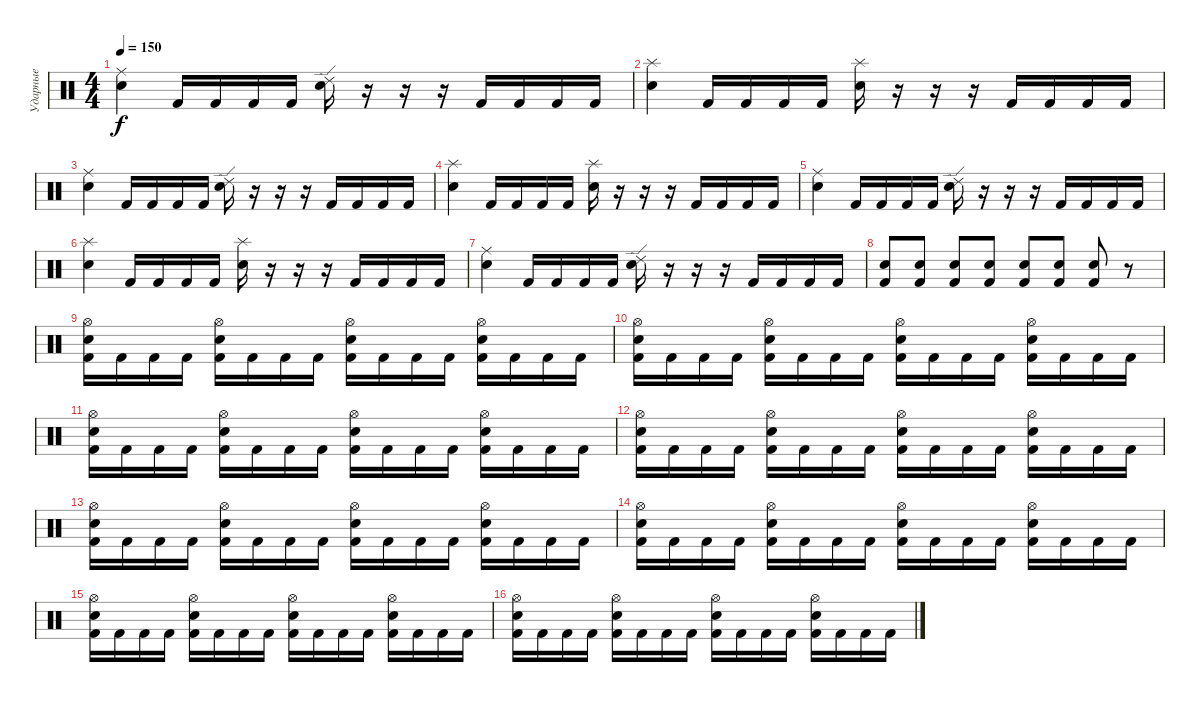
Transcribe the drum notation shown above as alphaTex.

\track ("Ударные" "Ударные") {instrument percussion}
\staff {score}
\articulation defaults
\ts (4 4)
\tempo 150
\clef neutral
\ks c
("Electric Snare (hit)" "Ride (middle)").4{dy f} "Kick (hit) 2".16 "Kick (hit) 2".16 "Kick (hit) 2".16 "Kick (hit) 2".16 ("Electric Snare (hit)" "Ride (edge) 2").16 r.16 r.16 r.16 "Kick (hit) 2".16 "Kick (hit) 2".16 "Kick (hit) 2".16 "Kick (hit) 2".16 |
("Electric Snare (hit)" "Splash (hit)").4 "Kick (hit) 2".16 "Kick (hit) 2".16 "Kick (hit) 2".16 "Kick (hit) 2".16 ("Electric Snare (hit)" "Splash (hit)").16 r.16 r.16 r.16 "Kick (hit) 2".16 "Kick (hit) 2".16 "Kick (hit) 2".16 "Kick (hit) 2".16 |
("Electric Snare (hit)" "Ride (middle)").4 "Kick (hit) 2".16 "Kick (hit) 2".16 "Kick (hit) 2".16 "Kick (hit) 2".16 ("Electric Snare (hit)" "Ride (edge) 2").16 r.16 r.16 r.16 "Kick (hit) 2".16 "Kick (hit) 2".16 "Kick (hit) 2".16 "Kick (hit) 2".16 |
("Electric Snare (hit)" "Splash (hit)").4 "Kick (hit) 2".16 "Kick (hit) 2".16 "Kick (hit) 2".16 "Kick (hit) 2".16 ("Electric Snare (hit)" "Splash (hit)").16 r.16 r.16 r.16 "Kick (hit) 2".16 "Kick (hit) 2".16 "Kick (hit) 2".16 "Kick (hit) 2".16 |
("Electric Snare (hit)" "Ride (middle)").4 "Kick (hit) 2".16 "Kick (hit) 2".16 "Kick (hit) 2".16 "Kick (hit) 2".16 ("Electric Snare (hit)" "Ride (edge) 2").16 r.16 r.16 r.16 "Kick (hit) 2".16 "Kick (hit) 2".16 "Kick (hit) 2".16 "Kick (hit) 2".16 |
("Electric Snare (hit)" "Splash (hit)").4 "Kick (hit) 2".16 "Kick (hit) 2".16 "Kick (hit) 2".16 "Kick (hit) 2".16 ("Electric Snare (hit)" "Splash (hit)").16 r.16 r.16 r.16 "Kick (hit) 2".16 "Kick (hit) 2".16 "Kick (hit) 2".16 "Kick (hit) 2".16 |
("Electric Snare (hit)" "Ride (middle)").4 "Kick (hit) 2".16 "Kick (hit) 2".16 "Kick (hit) 2".16 "Kick (hit) 2".16 ("Electric Snare (hit)" "Ride (edge) 2").16 r.16 r.16 r.16 "Kick (hit) 2".16 "Kick (hit) 2".16 "Kick (hit) 2".16 "Kick (hit) 2".16 |
("Electric Snare (hit)" "Kick (hit) 2").8 ("Electric Snare (hit)" "Kick (hit) 2").8 ("Electric Snare (hit)" "Kick (hit) 2").8 ("Electric Snare (hit)" "Kick (hit) 2").8 ("Electric Snare (hit)" "Kick (hit) 2").8 ("Electric Snare (hit)" "Kick (hit) 2").8 ("Electric Snare (hit)" "Kick (hit) 2").8 r.8 |
("Kick (hit) 2" "Electric Snare (hit)" "Hi-Hat (open)").16 "Kick (hit) 2".16 "Kick (hit) 2".16 "Kick (hit) 2".16 ("Kick (hit) 2" "Electric Snare (hit)" "Hi-Hat (open)").16 "Kick (hit) 2".16 "Kick (hit) 2".16 "Kick (hit) 2".16 ("Kick (hit) 2" "Electric Snare (hit)" "Hi-Hat (open)").16 "Kick (hit) 2".16 "Kick (hit) 2".16 "Kick (hit) 2".16 ("Kick (hit) 2" "Electric Snare (hit)" "Hi-Hat (open)").16 "Kick (hit) 2".16 "Kick (hit) 2".16 "Kick (hit) 2".16 |
("Kick (hit) 2" "Electric Snare (hit)" "Hi-Hat (open)").16 "Kick (hit) 2".16 "Kick (hit) 2".16 "Kick (hit) 2".16 ("Kick (hit) 2" "Electric Snare (hit)" "Hi-Hat (open)").16 "Kick (hit) 2".16 "Kick (hit) 2".16 "Kick (hit) 2".16 ("Kick (hit) 2" "Electric Snare (hit)" "Hi-Hat (open)").16 "Kick (hit) 2".16 "Kick (hit) 2".16 "Kick (hit) 2".16 ("Kick (hit) 2" "Electric Snare (hit)" "Hi-Hat (open)").16 "Kick (hit) 2".16 "Kick (hit) 2".16 "Kick (hit) 2".16 |
("Kick (hit) 2" "Electric Snare (hit)" "Hi-Hat (open)").16 "Kick (hit) 2".16 "Kick (hit) 2".16 "Kick (hit) 2".16 ("Kick (hit) 2" "Electric Snare (hit)" "Hi-Hat (open)").16 "Kick (hit) 2".16 "Kick (hit) 2".16 "Kick (hit) 2".16 ("Kick (hit) 2" "Electric Snare (hit)" "Hi-Hat (open)").16 "Kick (hit) 2".16 "Kick (hit) 2".16 "Kick (hit) 2".16 ("Kick (hit) 2" "Electric Snare (hit)" "Hi-Hat (open)").16 "Kick (hit) 2".16 "Kick (hit) 2".16 "Kick (hit) 2".16 |
("Kick (hit) 2" "Electric Snare (hit)" "Hi-Hat (open)").16 "Kick (hit) 2".16 "Kick (hit) 2".16 "Kick (hit) 2".16 ("Kick (hit) 2" "Electric Snare (hit)" "Hi-Hat (open)").16 "Kick (hit) 2".16 "Kick (hit) 2".16 "Kick (hit) 2".16 ("Kick (hit) 2" "Electric Snare (hit)" "Hi-Hat (open)").16 "Kick (hit) 2".16 "Kick (hit) 2".16 "Kick (hit) 2".16 ("Kick (hit) 2" "Electric Snare (hit)" "Hi-Hat (open)").16 "Kick (hit) 2".16 "Kick (hit) 2".16 "Kick (hit) 2".16 |
("Kick (hit) 2" "Electric Snare (hit)" "Hi-Hat (open)").16 "Kick (hit) 2".16 "Kick (hit) 2".16 "Kick (hit) 2".16 ("Kick (hit) 2" "Electric Snare (hit)" "Hi-Hat (open)").16 "Kick (hit) 2".16 "Kick (hit) 2".16 "Kick (hit) 2".16 ("Kick (hit) 2" "Electric Snare (hit)" "Hi-Hat (open)").16 "Kick (hit) 2".16 "Kick (hit) 2".16 "Kick (hit) 2".16 ("Kick (hit) 2" "Electric Snare (hit)" "Hi-Hat (open)").16 "Kick (hit) 2".16 "Kick (hit) 2".16 "Kick (hit) 2".16 |
("Kick (hit) 2" "Electric Snare (hit)" "Hi-Hat (open)").16 "Kick (hit) 2".16 "Kick (hit) 2".16 "Kick (hit) 2".16 ("Kick (hit) 2" "Electric Snare (hit)" "Hi-Hat (open)").16 "Kick (hit) 2".16 "Kick (hit) 2".16 "Kick (hit) 2".16 ("Kick (hit) 2" "Electric Snare (hit)" "Hi-Hat (open)").16 "Kick (hit) 2".16 "Kick (hit) 2".16 "Kick (hit) 2".16 ("Kick (hit) 2" "Electric Snare (hit)" "Hi-Hat (open)").16 "Kick (hit) 2".16 "Kick (hit) 2".16 "Kick (hit) 2".16 |
("Kick (hit) 2" "Electric Snare (hit)" "Hi-Hat (open)").16 "Kick (hit) 2".16 "Kick (hit) 2".16 "Kick (hit) 2".16 ("Kick (hit) 2" "Electric Snare (hit)" "Hi-Hat (open)").16 "Kick (hit) 2".16 "Kick (hit) 2".16 "Kick (hit) 2".16 ("Kick (hit) 2" "Electric Snare (hit)" "Hi-Hat (open)").16 "Kick (hit) 2".16 "Kick (hit) 2".16 "Kick (hit) 2".16 ("Kick (hit) 2" "Electric Snare (hit)" "Hi-Hat (open)").16 "Kick (hit) 2".16 "Kick (hit) 2".16 "Kick (hit) 2".16 |
("Kick (hit) 2" "Electric Snare (hit)" "Hi-Hat (open)").16 "Kick (hit) 2".16 "Kick (hit) 2".16 "Kick (hit) 2".16 ("Kick (hit) 2" "Electric Snare (hit)" "Hi-Hat (open)").16 "Kick (hit) 2".16 "Kick (hit) 2".16 "Kick (hit) 2".16 ("Kick (hit) 2" "Electric Snare (hit)" "Hi-Hat (open)").16 "Kick (hit) 2".16 "Kick (hit) 2".16 "Kick (hit) 2".16 ("Kick (hit) 2" "Electric Snare (hit)" "Hi-Hat (open)").16 "Kick (hit) 2".16 "Kick (hit) 2".16 "Kick (hit) 2".16
